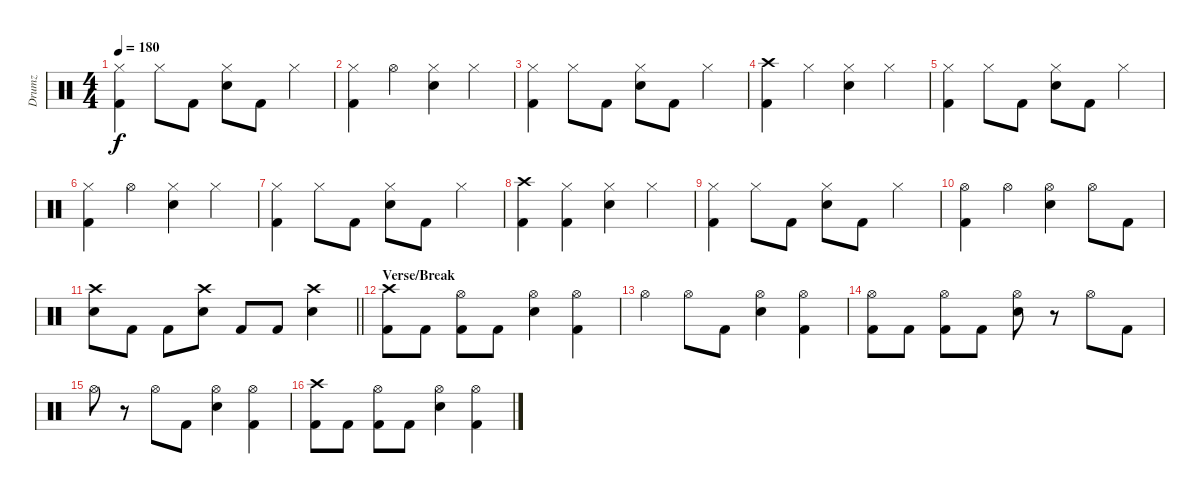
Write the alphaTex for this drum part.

\track ("Drumz" "Drumz") {instrument percussion}
\staff {score}
\articulation defaults
\ts (4 4)
\tempo 180
\clef neutral
\ks c
("Kick (hit) 2" "Hi-Hat (closed)").4{dy f} "Hi-Hat (closed)".8 "Kick (hit) 2".8 ("Hi-Hat (closed)" "Snare (hit) 2").8 "Kick (hit) 2".8 "Hi-Hat (closed)".4 |
("Kick (hit) 2" "Hi-Hat (closed)").4 "Hi-Hat (open)".4 ("Hi-Hat (closed)" "Snare (hit) 2").4 "Hi-Hat (closed)".4 |
("Kick (hit) 2" "Hi-Hat (closed)").4 "Hi-Hat (closed)".8 "Kick (hit) 2".8 ("Hi-Hat (closed)" "Snare (hit) 2").8 "Kick (hit) 2".8 "Hi-Hat (closed)".4 |
("Kick (hit) 2" "Crash high (hit)").4 "Hi-Hat (closed)".4 ("Hi-Hat (closed)" "Snare (hit) 2").4 "Hi-Hat (closed)".4 |
("Kick (hit) 2" "Hi-Hat (closed)").4 "Hi-Hat (closed)".8 "Kick (hit) 2".8 ("Hi-Hat (closed)" "Snare (hit) 2").8 "Kick (hit) 2".8 "Hi-Hat (closed)".4 |
("Kick (hit) 2" "Hi-Hat (closed)").4 "Hi-Hat (open)".4 ("Hi-Hat (closed)" "Snare (hit) 2").4 "Hi-Hat (closed)".4 |
("Kick (hit) 2" "Hi-Hat (closed)").4 "Hi-Hat (closed)".8 "Kick (hit) 2".8 ("Hi-Hat (closed)" "Snare (hit) 2").8 "Kick (hit) 2".8 "Hi-Hat (closed)".4 |
("Kick (hit) 2" "Crash high (hit)").4 ("Kick (hit) 2" "Hi-Hat (closed)").4 ("Hi-Hat (closed)" "Snare (hit) 2").4 "Hi-Hat (closed)".4 |
("Kick (hit) 2" "Hi-Hat (closed)").4 "Hi-Hat (closed)".8 "Kick (hit) 2".8 ("Hi-Hat (closed)" "Snare (hit) 2").8 "Kick (hit) 2".8 "Hi-Hat (closed)".4 |
("Hi-Hat (open)" "Kick (hit) 2").4 "Hi-Hat (open)".4 ("Hi-Hat (open)" "Snare (hit) 2").4 "Hi-Hat (open)".8 "Kick (hit) 2".8 |
\barLineRight lightlight
("Crash high (hit)" "Snare (hit) 2").8 "Kick (hit) 2".8 "Kick (hit) 2".8 ("Crash high (hit)" "Snare (hit) 2").8 "Kick (hit) 2".8 "Kick (hit) 2".8 ("Crash high (hit)" "Snare (hit) 2").4 |
\section ("" "Verse/Break")
("Kick (hit) 2" "Crash high (hit)").8 "Kick (hit) 2".8 ("Kick (hit) 2" "Hi-Hat (open)").8 "Kick (hit) 2".8 ("Hi-Hat (open)" "Snare (hit) 2").4 ("Kick (hit) 2" "Hi-Hat (open)").4 |
"Hi-Hat (open)".4 "Hi-Hat (open)".8 "Kick (hit) 2".8 ("Hi-Hat (open)" "Snare (hit) 2").4 ("Kick (hit) 2" "Hi-Hat (open)").4 |
("Kick (hit) 2" "Hi-Hat (open)").8 "Kick (hit) 2".8 ("Kick (hit) 2" "Hi-Hat (open)").8 "Kick (hit) 2".8 ("Hi-Hat (open)" "Snare (hit) 2").8 r.8 "Hi-Hat (open)".8 "Kick (hit) 2".8 |
"Hi-Hat (open)".8 r.8 "Hi-Hat (open)".8 "Kick (hit) 2".8 ("Hi-Hat (open)" "Snare (hit) 2").4 ("Kick (hit) 2" "Hi-Hat (open)").4 |
("Kick (hit) 2" "Crash high (hit)").8 "Kick (hit) 2".8 ("Kick (hit) 2" "Hi-Hat (open)").8 "Kick (hit) 2".8 ("Hi-Hat (open)" "Snare (hit) 2").4 ("Kick (hit) 2" "Hi-Hat (open)").4
